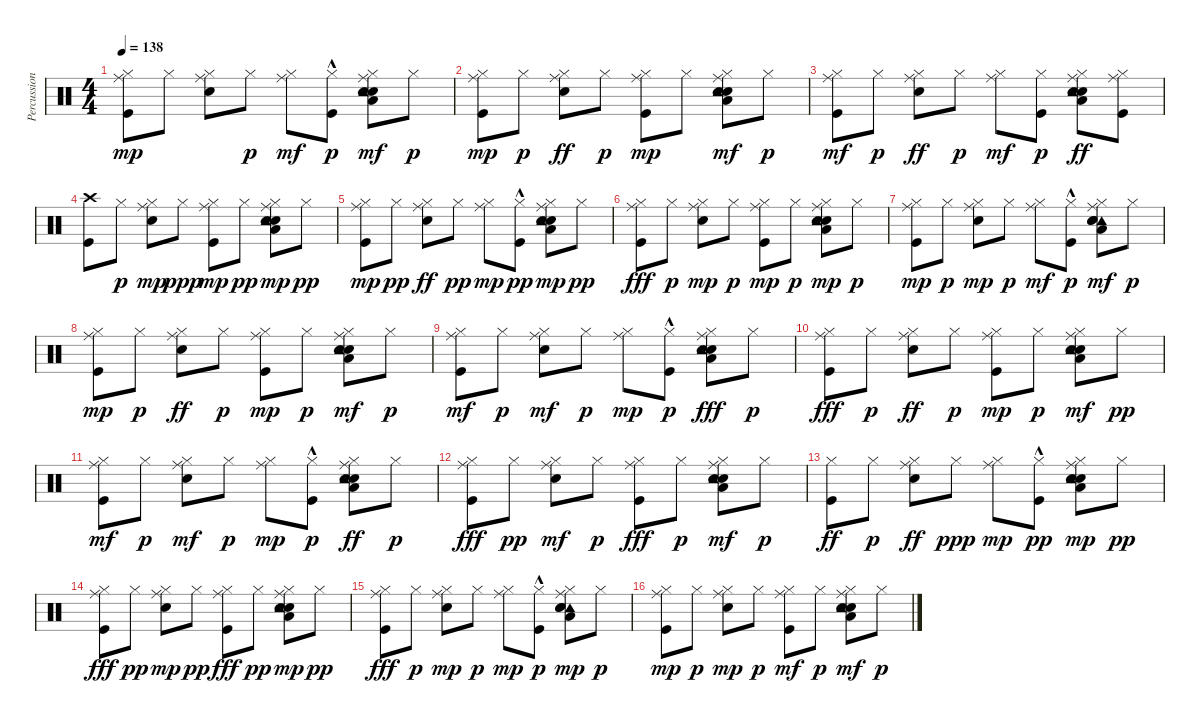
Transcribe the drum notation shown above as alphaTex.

\track ("Percussion" "Percussion") {instrument percussion}
\staff {score}
\articulation defaults
\ts (4 4)
\tempo 138
\clef neutral
\ks c
("Kick (hit)" "Hi-Hat (closed)" "Ride (middle)").8{dy mp} "Hi-Hat (closed)".8 ("Electric Snare (hit)" "Hi-Hat (closed)" "Ride (middle)").8 "Hi-Hat (closed)".8{dy p} ("Hi-Hat (closed)" "Ride (middle)").8{dy mf} ("Kick (hit)"{hac} "Hi-Hat (closed)").8{dy p} ("Hand Clap (hit)" "Low Floor Tom (hit)" "Snare (hit) 2" "Tambourine (hit)" "Hi-Hat (closed)" "Ride (middle)").8{dy mf} "Hi-Hat (closed)".8{dy p} |
("Kick (hit)" "Hi-Hat (closed)" "Ride (middle)").8{dy mp} "Hi-Hat (closed)".8{dy p} ("Hi-Hat (closed)" "Ride (middle)" "Electric Snare (hit)").8{dy ff} "Hi-Hat (closed)".8{dy p} ("Hi-Hat (closed)" "Kick (hit)" "Ride (middle)").8{dy mp} "Hi-Hat (closed)".8 ("Hi-Hat (closed)" "Hand Clap (hit)" "Snare (hit) 2" "Low Floor Tom (hit)" "Tambourine (hit)" "Ride (middle)").8{dy mf} "Hi-Hat (closed)".8{dy p} |
("Kick (hit)" "Hi-Hat (closed)" "Ride (middle)").8{dy mf} "Hi-Hat (closed)".8{dy p} ("Hi-Hat (closed)" "Ride (middle)" "Electric Snare (hit)").8{dy ff} "Hi-Hat (closed)".8{dy p} ("Ride (middle)" "Hi-Hat (closed)").8{dy mf} ("Kick (hit)" "Hi-Hat (closed)").8{dy p} ("Hi-Hat (closed)" "Ride (middle)" "Snare (hit) 2" "Hand Clap (hit)" "Tambourine (hit)" "Low Floor Tom (hit)").8{dy ff} ("Hi-Hat (closed)" "Kick (hit)" "Ride (middle)").8 |
("Kick (hit)" "Crash high (hit)").8 "Hi-Hat (closed)".8{dy p} ("Electric Snare (hit)" "Hi-Hat (closed)" "Ride (middle)").8{dy mp} "Hi-Hat (closed)".8{dy ppp} ("Kick (hit)" "Hi-Hat (closed)" "Ride (middle)").8{dy mp} "Hi-Hat (closed)".8{dy pp} ("Snare (hit) 2" "Hand Clap (hit)" "Low Floor Tom (hit)" "Tambourine (hit)" "Hi-Hat (closed)" "Ride (middle)").8{dy mp} "Hi-Hat (closed)".8{dy pp} |
("Kick (hit)" "Hi-Hat (closed)" "Ride (middle)").8{dy mp} "Hi-Hat (closed)".8{dy pp} ("Hi-Hat (closed)" "Ride (middle)" "Electric Snare (hit)").8{dy ff} "Hi-Hat (closed)".8{dy pp} ("Hi-Hat (closed)" "Ride (middle)").8{dy mp} ("Kick (hit)"{hac} "Hi-Hat (closed)").8{dy pp} ("Snare (hit) 2" "Hand Clap (hit)" "Tambourine (hit)" "Low Floor Tom (hit)" "Hi-Hat (closed)" "Ride (middle)").8{dy mp} "Hi-Hat (closed)".8{dy pp} |
("Hi-Hat (closed)" "Ride (middle)" "Kick (hit)").8{dy fff} "Hi-Hat (closed)".8{dy p} ("Electric Snare (hit)" "Hi-Hat (closed)" "Ride (middle)").8{dy mp} "Hi-Hat (closed)".8{dy p} ("Kick (hit)" "Hi-Hat (closed)" "Ride (middle)").8{dy mp} "Hi-Hat (closed)".8{dy p} ("Hand Clap (hit)" "Snare (hit) 2" "Low Floor Tom (hit)" "Tambourine (hit)" "Hi-Hat (closed)" "Ride (middle)").8{dy mp} "Hi-Hat (closed)".8{dy p} |
("Kick (hit)" "Hi-Hat (closed)" "Ride (middle)").8{dy mp} "Hi-Hat (closed)".8{dy p} ("Electric Snare (hit)" "Hi-Hat (closed)" "Ride (middle)").8{dy mp} "Hi-Hat (closed)".8{dy p} ("Hi-Hat (closed)" "Ride (middle)").8{dy mf} ("Kick (hit)"{hac} "Hi-Hat (closed)").8{dy p} ("Tambourine (hit)" "Hand Clap (hit)" "Low Floor Tom (hit)" "Snare (hit) 2" "Hi-Hat (closed)" "Ride (middle)").8{dy mf} "Hi-Hat (closed)".8{dy p} |
("Kick (hit)" "Hi-Hat (closed)" "Ride (middle)").8{dy mp} "Hi-Hat (closed)".8{dy p} ("Hi-Hat (closed)" "Ride (middle)" "Electric Snare (hit)").8{dy ff} "Hi-Hat (closed)".8{dy p} ("Kick (hit)" "Hi-Hat (closed)" "Ride (middle)").8{dy mp} "Hi-Hat (closed)".8{dy p} ("Snare (hit) 2" "Tambourine (hit)" "Low Floor Tom (hit)" "Hand Clap (hit)" "Hi-Hat (closed)" "Ride (middle)").8{dy mf} "Hi-Hat (closed)".8{dy p} |
("Kick (hit)" "Hi-Hat (closed)" "Ride (middle)").8{dy mf} "Hi-Hat (closed)".8{dy p} ("Electric Snare (hit)" "Hi-Hat (closed)" "Ride (middle)").8{dy mf} "Hi-Hat (closed)".8{dy p} ("Hi-Hat (closed)" "Ride (middle)").8{dy mp} ("Kick (hit)"{hac} "Hi-Hat (closed)").8{dy p} ("Hi-Hat (closed)" "Ride (middle)" "Hand Clap (hit)" "Low Floor Tom (hit)" "Snare (hit) 2" "Tambourine (hit)").8{dy fff} "Hi-Hat (closed)".8{dy p} |
("Hi-Hat (closed)" "Ride (middle)" "Kick (hit)").8{dy fff} "Hi-Hat (closed)".8{dy p} ("Hi-Hat (closed)" "Ride (middle)" "Electric Snare (hit)").8{dy ff} "Hi-Hat (closed)".8{dy p} ("Kick (hit)" "Hi-Hat (closed)" "Ride (middle)").8{dy mp} "Hi-Hat (closed)".8{dy p} ("Hand Clap (hit)" "Snare (hit) 2" "Low Floor Tom (hit)" "Tambourine (hit)" "Hi-Hat (closed)" "Ride (middle)").8{dy mf} "Hi-Hat (closed)".8{dy pp} |
("Kick (hit)" "Hi-Hat (closed)" "Ride (middle)").8{dy mf} "Hi-Hat (closed)".8{dy p} ("Electric Snare (hit)" "Hi-Hat (closed)" "Ride (middle)").8{dy mf} "Hi-Hat (closed)".8{dy p} ("Hi-Hat (closed)" "Ride (middle)").8{dy mp} ("Kick (hit)"{hac} "Hi-Hat (closed)").8{dy p} ("Hi-Hat (closed)" "Ride (middle)" "Snare (hit) 2" "Hand Clap (hit)" "Tambourine (hit)" "Low Floor Tom (hit)").8{dy ff} "Hi-Hat (closed)".8{dy p} |
("Hi-Hat (closed)" "Ride (middle)" "Kick (hit)").8{dy fff} "Hi-Hat (closed)".8{dy pp} ("Electric Snare (hit)" "Hi-Hat (closed)" "Ride (middle)").8{dy mf} "Hi-Hat (closed)".8{dy p} ("Hi-Hat (closed)" "Ride (middle)" "Kick (hit)").8{dy fff} "Hi-Hat (closed)".8{dy p} ("Snare (hit) 2" "Hand Clap (hit)" "Low Floor Tom (hit)" "Tambourine (hit)" "Hi-Hat (closed)" "Ride (middle)").8{dy mf} "Hi-Hat (closed)".8{dy p} |
("Kick (hit)" "Hi-Hat (closed)").8{dy ff} "Hi-Hat (closed)".8{dy p} ("Hi-Hat (closed)" "Ride (middle)" "Electric Snare (hit)").8{dy ff} "Hi-Hat (closed)".8{dy ppp} ("Hi-Hat (closed)" "Ride (middle)").8{dy mp} ("Kick (hit)"{hac} "Hi-Hat (closed)").8{dy pp} ("Snare (hit) 2" "Hand Clap (hit)" "Tambourine (hit)" "Low Floor Tom (hit)" "Hi-Hat (closed)" "Ride (middle)").8{dy mp} "Hi-Hat (closed)".8{dy pp} |
("Hi-Hat (closed)" "Ride (middle)" "Kick (hit)").8{dy fff} "Hi-Hat (closed)".8{dy pp} ("Electric Snare (hit)" "Hi-Hat (closed)" "Ride (middle)").8{dy mp} "Hi-Hat (closed)".8{dy pp} ("Hi-Hat (closed)" "Ride (middle)" "Kick (hit)").8{dy fff} "Hi-Hat (closed)".8{dy pp} ("Hand Clap (hit)" "Snare (hit) 2" "Low Floor Tom (hit)" "Tambourine (hit)" "Hi-Hat (closed)" "Ride (middle)").8{dy mp} "Hi-Hat (closed)".8{dy pp} |
("Hi-Hat (closed)" "Ride (middle)" "Kick (hit)").8{dy fff} "Hi-Hat (closed)".8{dy p} ("Electric Snare (hit)" "Hi-Hat (closed)" "Ride (middle)").8{dy mp} "Hi-Hat (closed)".8{dy p} ("Hi-Hat (closed)" "Ride (middle)").8{dy mp} ("Kick (hit)"{hac} "Hi-Hat (closed)").8{dy p} ("Tambourine (hit)" "Hand Clap (hit)" "Low Floor Tom (hit)" "Snare (hit) 2" "Hi-Hat (closed)" "Ride (middle)").8{dy mp} "Hi-Hat (closed)".8{dy p} |
("Kick (hit)" "Hi-Hat (closed)" "Ride (middle)").8{dy mp} "Hi-Hat (closed)".8{dy p} ("Electric Snare (hit)" "Hi-Hat (closed)" "Ride (middle)").8{dy mp} "Hi-Hat (closed)".8{dy p} ("Kick (hit)" "Hi-Hat (closed)" "Ride (middle)").8{dy mf} "Hi-Hat (closed)".8{dy p} ("Snare (hit) 2" "Tambourine (hit)" "Low Floor Tom (hit)" "Hand Clap (hit)" "Hi-Hat (closed)" "Ride (middle)").8{dy mf} "Hi-Hat (closed)".8{dy p}
